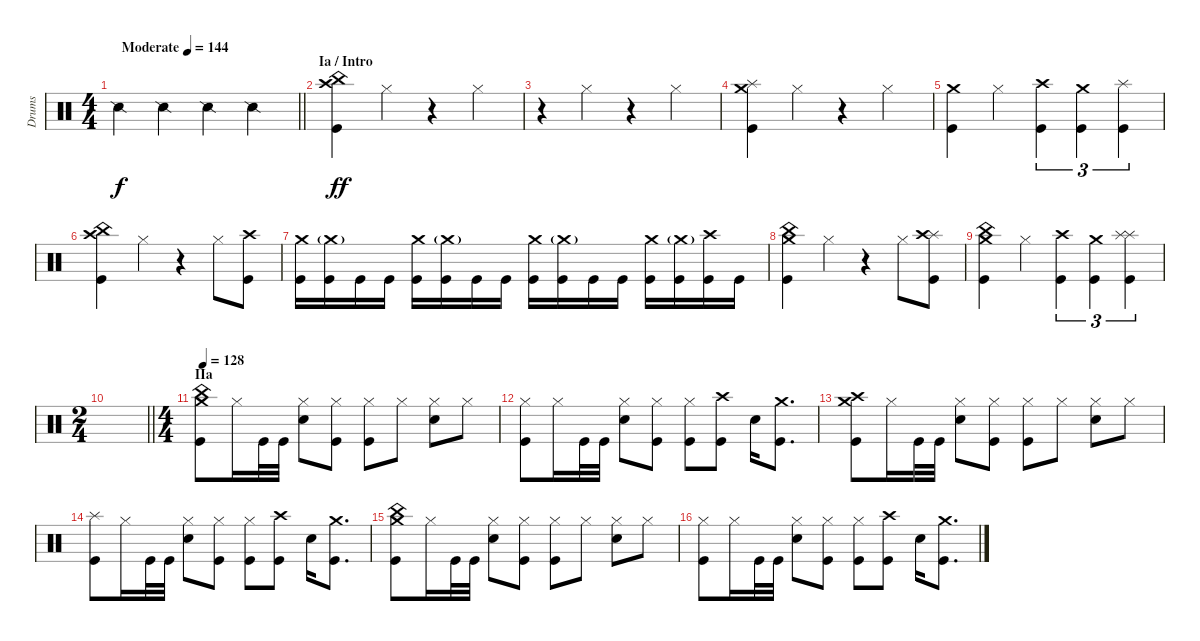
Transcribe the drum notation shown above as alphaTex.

\track ("Drums" "Drums") {instrument percussion}
\staff {score}
\articulation defaults
\ts (4 4)
\tempo (144 "Moderate")
\clef neutral
\barLineRight lightlight
\ks c "Snare (side stick) 2".4{dy f} "Snare (side stick) 2".4 "Snare (side stick) 2".4 "Snare (side stick) 2".4
|
\section ("" "Ia / Intro")
("China (hit)" "Crash high (hit)" "Kick (hit)").4{dy ff} "Hi-Hat (closed)".4 r.4 "Hi-Hat (closed)".4 |
r.4 "Hi-Hat (closed)".4 r.4 "Hi-Hat (closed)".4 |
("Splash (hit)" "Crash medium (hit)" "Kick (hit)").4 "Hi-Hat (closed)".4 r.4 "Hi-Hat (closed)".4 |
("Crash medium (hit)" "Kick (hit)").4 "Hi-Hat (closed)".4 ("Crash high (hit)" "Kick (hit)").4{tu (3 2)} ("Crash medium (hit)" "Kick (hit)").4{tu (3 2)} ("Splash (hit)" "Kick (hit)").4{tu (3 2)} |
("China (hit)" "Crash high (hit)" "Kick (hit)").4 "Hi-Hat (closed)".4 r.4 "Hi-Hat (closed)".8 ("Crash high (hit)" "Kick (hit)").8 |
("Crash medium (hit)" "Kick (hit)").16 ("Crash medium (hit)"{g} "Kick (hit)").16 "Kick (hit)".16 "Kick (hit)".16 ("Crash medium (hit)" "Kick (hit)").16 ("Crash medium (hit)"{g} "Kick (hit)").16 "Kick (hit)".16 "Kick (hit)".16 ("Crash medium (hit)" "Kick (hit)").16 ("Crash medium (hit)"{g} "Kick (hit)").16 "Kick (hit)".16 "Kick (hit)".16 ("Crash medium (hit)" "Kick (hit)").16 ("Crash medium (hit)"{g} "Kick (hit)").16 ("Crash high (hit)" "Kick (hit)").16 "Kick (hit)".16 |
("China (hit)" "Crash medium (hit)" "Kick (hit)").4 "Hi-Hat (closed)".4 r.4 "Hi-Hat (closed)".8 ("Splash (hit)" "Crash high (hit)" "Kick (hit)").8 |
("Crash medium (hit)" "China (hit)" "Kick (hit)").4 "Hi-Hat (closed)".4 ("Crash high (hit)" "Kick (hit)").4{tu (3 2)} ("Crash medium (hit)" "Kick (hit)").4{tu (3 2)} ("Splash (hit)" "Splash (hit)" "Kick (hit)").4{tu (3 2)} |
\ts (2 4)
\barLineRight lightlight
|
\ts (4 4)
\section ("" "IIa")
\tempo 128
("Crash medium (hit)" "China (hit)" "Kick (hit)").8 "Hi-Hat (closed)".16 "Kick (hit)".32 "Kick (hit)".32 ("Hi-Hat (closed)" "Electric Snare (hit)").8 ("Hi-Hat (closed)" "Kick (hit)").8 ("Hi-Hat (closed)" "Kick (hit)").8 "Hi-Hat (closed)".8 ("Hi-Hat (closed)" "Electric Snare (hit)").8 "Hi-Hat (closed)".8 |
("Hi-Hat (closed)" "Kick (hit)").8 "Hi-Hat (closed)".16 "Kick (hit)".32 "Kick (hit)".32 ("Hi-Hat (closed)" "Electric Snare (hit)").8 ("Hi-Hat (closed)" "Kick (hit)").8 ("Hi-Hat (closed)" "Kick (hit)").8 ("Crash high (hit)" "Kick (hit)").8 "Electric Snare (hit)".16 ("Crash medium (hit)" "Kick (hit)").8{d} |
("Crash medium (hit)" "Crash high (hit)" "Kick (hit)").8 "Hi-Hat (closed)".16 "Kick (hit)".32 "Kick (hit)".32 ("Hi-Hat (closed)" "Electric Snare (hit)").8 ("Hi-Hat (closed)" "Kick (hit)").8 ("Hi-Hat (closed)" "Kick (hit)").8 "Hi-Hat (closed)".8 ("Hi-Hat (closed)" "Electric Snare (hit)").8 "Hi-Hat (closed)".8 |
("Splash (hit)" "Kick (hit)").8 "Hi-Hat (closed)".16 "Kick (hit)".32 "Kick (hit)".32 ("Hi-Hat (closed)" "Electric Snare (hit)").8 ("Hi-Hat (closed)" "Kick (hit)").8 ("Hi-Hat (closed)" "Kick (hit)").8 ("Crash high (hit)" "Kick (hit)").8 "Electric Snare (hit)".16 ("Crash medium (hit)" "Kick (hit)").8{d} |
("Crash medium (hit)" "China (hit)" "Kick (hit)").8 "Hi-Hat (closed)".16 "Kick (hit)".32 "Kick (hit)".32 ("Hi-Hat (closed)" "Electric Snare (hit)").8 ("Hi-Hat (closed)" "Kick (hit)").8 ("Hi-Hat (closed)" "Kick (hit)").8 "Hi-Hat (closed)".8 ("Hi-Hat (closed)" "Electric Snare (hit)").8 "Hi-Hat (closed)".8 |
("Hi-Hat (closed)" "Kick (hit)").8 "Hi-Hat (closed)".16 "Kick (hit)".32 "Kick (hit)".32 ("Hi-Hat (closed)" "Electric Snare (hit)").8 ("Hi-Hat (closed)" "Kick (hit)").8 ("Hi-Hat (closed)" "Kick (hit)").8 ("Crash high (hit)" "Kick (hit)").8 "Electric Snare (hit)".16 ("Crash medium (hit)" "Kick (hit)").8{d}
